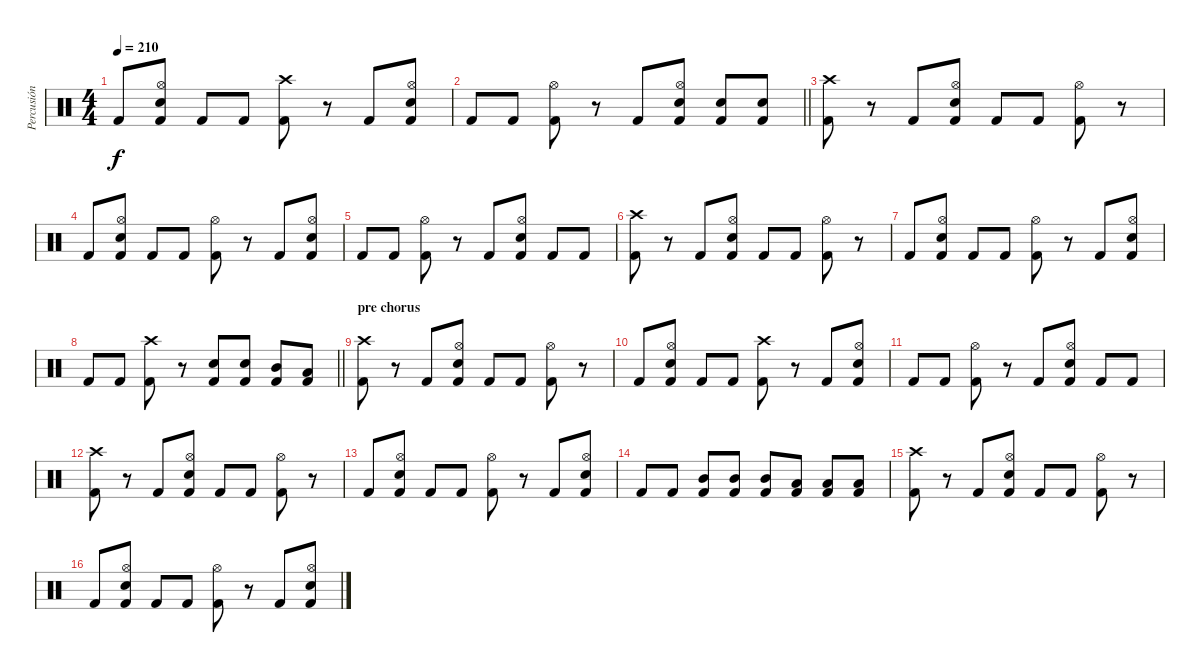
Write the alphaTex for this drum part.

\track ("Percusión" "Percusión") {instrument percussion}
\staff {score}
\articulation defaults
\ts (4 4)
\tempo 210
\clef neutral
\ks c "Kick (hit) 2".8{dy f}
("Hi-Hat (open)" "Snare (hit) 2" "Kick (hit) 2").8 "Kick (hit) 2".8 "Kick (hit) 2".8 ("Crash high (hit)" "Kick (hit) 2").8 r.8 "Kick (hit) 2".8 ("Hi-Hat (open)" "Snare (hit) 2" "Kick (hit) 2").8 |
\barLineRight lightlight "Kick (hit) 2".8 "Kick (hit) 2".8
("Hi-Hat (open)" "Kick (hit) 2").8 r.8 "Kick (hit) 2".8 ("Hi-Hat (open)" "Snare (hit) 2" "Kick (hit) 2").8 ("Snare (hit) 2" "Kick (hit) 2").8 ("Snare (hit) 2" "Kick (hit) 2").8 |
("Crash high (hit)" "Kick (hit) 2").8 r.8 "Kick (hit) 2".8 ("Hi-Hat (open)" "Snare (hit) 2" "Kick (hit) 2").8 "Kick (hit) 2".8 "Kick (hit) 2".8 ("Hi-Hat (open)" "Kick (hit) 2").8 r.8 |
"Kick (hit) 2".8 ("Hi-Hat (open)" "Snare (hit) 2" "Kick (hit) 2").8 "Kick (hit) 2".8 "Kick (hit) 2".8 ("Hi-Hat (open)" "Kick (hit) 2").8 r.8 "Kick (hit) 2".8 ("Hi-Hat (open)" "Snare (hit) 2" "Kick (hit) 2").8 |
"Kick (hit) 2".8 "Kick (hit) 2".8 ("Hi-Hat (open)" "Kick (hit) 2").8 r.8 "Kick (hit) 2".8 ("Hi-Hat (open)" "Snare (hit) 2" "Kick (hit) 2").8 "Kick (hit) 2".8 "Kick (hit) 2".8 |
("Crash high (hit)" "Kick (hit) 2").8 r.8 "Kick (hit) 2".8 ("Hi-Hat (open)" "Snare (hit) 2" "Kick (hit) 2").8 "Kick (hit) 2".8 "Kick (hit) 2".8 ("Hi-Hat (open)" "Kick (hit) 2").8 r.8 |
"Kick (hit) 2".8 ("Hi-Hat (open)" "Snare (hit) 2" "Kick (hit) 2").8 "Kick (hit) 2".8 "Kick (hit) 2".8 ("Hi-Hat (open)" "Kick (hit) 2").8 r.8 "Kick (hit) 2".8 ("Hi-Hat (open)" "Snare (hit) 2" "Kick (hit) 2").8 |
\barLineRight lightlight "Kick (hit) 2".8 "Kick (hit) 2".8
("Crash high (hit)" "Kick (hit) 2").8 r.8 ("Snare (hit) 2" "Kick (hit) 2").8 ("Snare (hit) 2" "Kick (hit) 2").8 ("Mid Tom (hit)" "Kick (hit) 2").8 ("Low Tom (hit)" "Kick (hit) 2").8 |
\section ("" "pre chorus")
("Crash high (hit)" "Kick (hit) 2").8 r.8 "Kick (hit) 2".8 ("Hi-Hat (open)" "Snare (hit) 2" "Kick (hit) 2").8 "Kick (hit) 2".8 "Kick (hit) 2".8 ("Hi-Hat (open)" "Kick (hit) 2").8 r.8 |
"Kick (hit) 2".8 ("Hi-Hat (open)" "Snare (hit) 2" "Kick (hit) 2").8 "Kick (hit) 2".8 "Kick (hit) 2".8 ("Crash high (hit)" "Kick (hit) 2").8 r.8 "Kick (hit) 2".8 ("Hi-Hat (open)" "Snare (hit) 2" "Kick (hit) 2").8 |
"Kick (hit) 2".8 "Kick (hit) 2".8 ("Hi-Hat (open)" "Kick (hit) 2").8 r.8 "Kick (hit) 2".8 ("Hi-Hat (open)" "Snare (hit) 2" "Kick (hit) 2").8 "Kick (hit) 2".8 "Kick (hit) 2".8 |
("Crash high (hit)" "Kick (hit) 2").8 r.8 "Kick (hit) 2".8 ("Hi-Hat (open)" "Snare (hit) 2" "Kick (hit) 2").8 "Kick (hit) 2".8 "Kick (hit) 2".8 ("Hi-Hat (open)" "Kick (hit) 2").8 r.8 |
"Kick (hit) 2".8 ("Hi-Hat (open)" "Snare (hit) 2" "Kick (hit) 2").8 "Kick (hit) 2".8 "Kick (hit) 2".8 ("Hi-Hat (open)" "Kick (hit) 2").8 r.8 "Kick (hit) 2".8 ("Hi-Hat (open)" "Snare (hit) 2" "Kick (hit) 2").8 |
"Kick (hit) 2".8 "Kick (hit) 2".8 ("Mid Tom (hit)" "Kick (hit) 2").8 ("Mid Tom (hit)" "Kick (hit) 2").8 ("Mid Tom (hit)" "Kick (hit) 2").8 ("Low Tom (hit)" "Kick (hit) 2").8 ("Low Floor Tom (hit)" "Kick (hit) 2").8 ("Low Floor Tom (hit)" "Kick (hit) 2").8 |
("Crash high (hit)" "Kick (hit) 2").8 r.8 "Kick (hit) 2".8 ("Hi-Hat (open)" "Snare (hit) 2" "Kick (hit) 2").8 "Kick (hit) 2".8 "Kick (hit) 2".8 ("Hi-Hat (open)" "Kick (hit) 2").8 r.8 |
"Kick (hit) 2".8 ("Hi-Hat (open)" "Snare (hit) 2" "Kick (hit) 2").8 "Kick (hit) 2".8 "Kick (hit) 2".8 ("Hi-Hat (open)" "Kick (hit) 2").8 r.8 "Kick (hit) 2".8 ("Hi-Hat (open)" "Snare (hit) 2" "Kick (hit) 2").8
